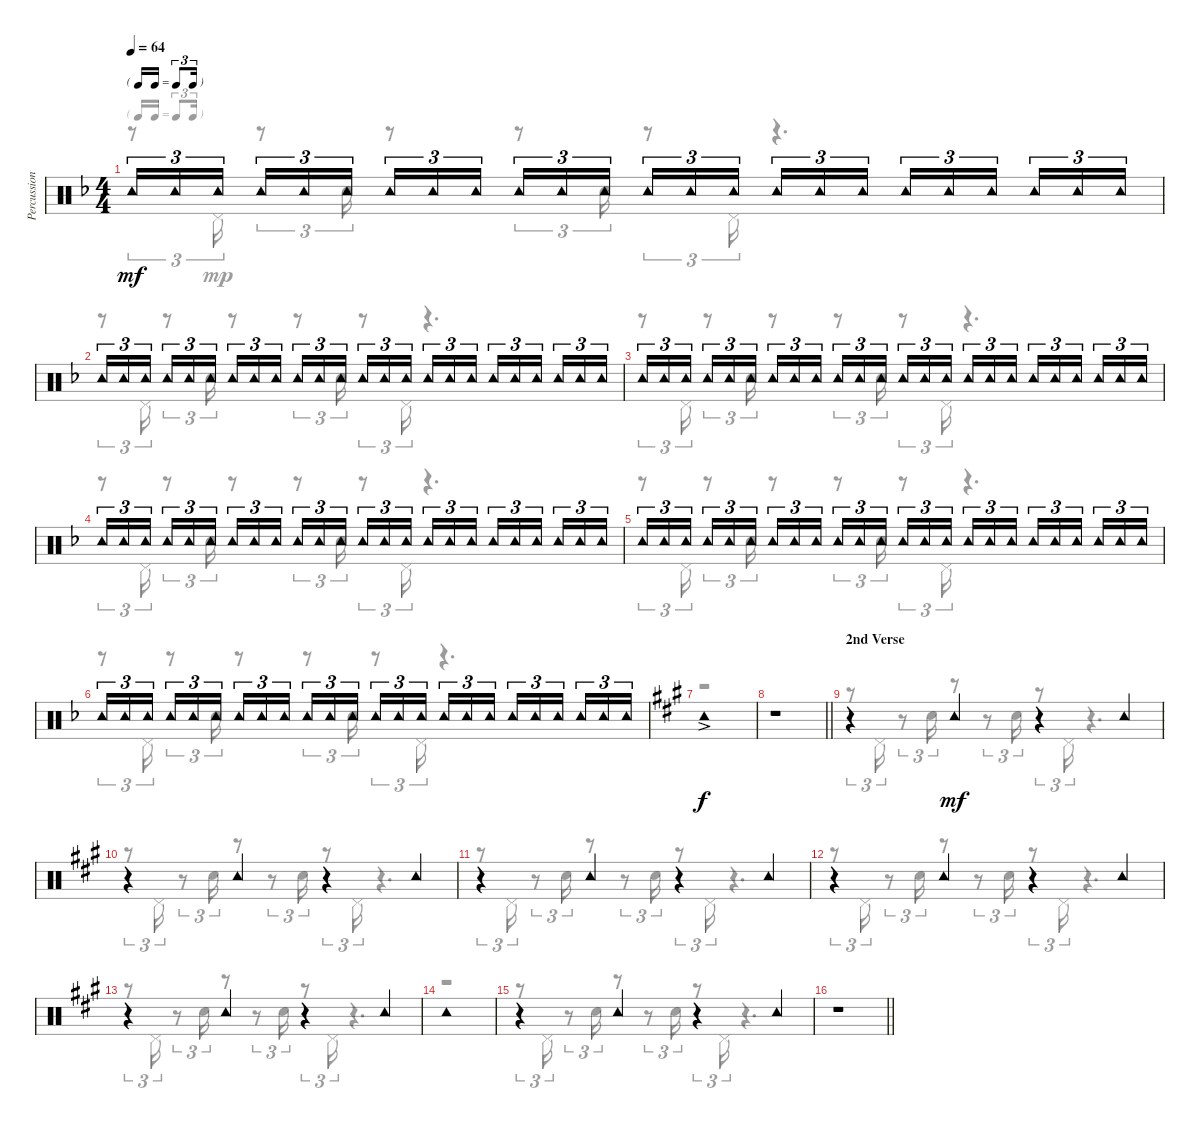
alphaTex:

\track ("Percussion" "Percussion") {instrument percussion}
\staff {score}
\articulation defaults
\voice
\ts (4 4)
\tf triplet16th
\tempo 64
\clef neutral
\ks f "Tambourine (hit)".16{tu (3 2) dy mf} "Tambourine (hit)".16{tu (3 2)} "Tambourine (hit)".16{tu (3 2) beam splitsecondary} "Tambourine (hit)".16{tu (3 2)} "Tambourine (hit)".16{tu (3 2)} "Tambourine (hit)".16{tu (3 2)} "Tambourine (hit)".16{tu (3 2)} "Tambourine (hit)".16{tu (3 2)} "Tambourine (hit)".16{tu (3 2) beam splitsecondary} "Tambourine (hit)".16{tu (3 2)} "Tambourine (hit)".16{tu (3 2)} "Tambourine (hit)".16{tu (3 2)} "Tambourine (hit)".16{tu (3 2)} "Tambourine (hit)".16{tu (3 2)} "Tambourine (hit)".16{tu (3 2) beam splitsecondary} "Tambourine (hit)".16{tu (3 2)} "Tambourine (hit)".16{tu (3 2)} "Tambourine (hit)".16{tu (3 2)} "Tambourine (hit)".16{tu (3 2)} "Tambourine (hit)".16{tu (3 2)} "Tambourine (hit)".16{tu (3 2) beam splitsecondary} "Tambourine (hit)".16{tu (3 2)} "Tambourine (hit)".16{tu (3 2)} "Tambourine (hit)".16{tu (3 2)}
|
"Tambourine (hit)".16{tu (3 2)} "Tambourine (hit)".16{tu (3 2)} "Tambourine (hit)".16{tu (3 2) beam splitsecondary} "Tambourine (hit)".16{tu (3 2)} "Tambourine (hit)".16{tu (3 2)} "Tambourine (hit)".16{tu (3 2)} "Tambourine (hit)".16{tu (3 2)} "Tambourine (hit)".16{tu (3 2)} "Tambourine (hit)".16{tu (3 2) beam splitsecondary} "Tambourine (hit)".16{tu (3 2)} "Tambourine (hit)".16{tu (3 2)} "Tambourine (hit)".16{tu (3 2)} "Tambourine (hit)".16{tu (3 2)} "Tambourine (hit)".16{tu (3 2)} "Tambourine (hit)".16{tu (3 2) beam splitsecondary} "Tambourine (hit)".16{tu (3 2)} "Tambourine (hit)".16{tu (3 2)} "Tambourine (hit)".16{tu (3 2)} "Tambourine (hit)".16{tu (3 2)} "Tambourine (hit)".16{tu (3 2)} "Tambourine (hit)".16{tu (3 2) beam splitsecondary} "Tambourine (hit)".16{tu (3 2)} "Tambourine (hit)".16{tu (3 2)} "Tambourine (hit)".16{tu (3 2)} |
"Tambourine (hit)".16{tu (3 2)} "Tambourine (hit)".16{tu (3 2)} "Tambourine (hit)".16{tu (3 2) beam splitsecondary} "Tambourine (hit)".16{tu (3 2)} "Tambourine (hit)".16{tu (3 2)} "Tambourine (hit)".16{tu (3 2)} "Tambourine (hit)".16{tu (3 2)} "Tambourine (hit)".16{tu (3 2)} "Tambourine (hit)".16{tu (3 2) beam splitsecondary} "Tambourine (hit)".16{tu (3 2)} "Tambourine (hit)".16{tu (3 2)} "Tambourine (hit)".16{tu (3 2)} "Tambourine (hit)".16{tu (3 2)} "Tambourine (hit)".16{tu (3 2)} "Tambourine (hit)".16{tu (3 2) beam splitsecondary} "Tambourine (hit)".16{tu (3 2)} "Tambourine (hit)".16{tu (3 2)} "Tambourine (hit)".16{tu (3 2)} "Tambourine (hit)".16{tu (3 2)} "Tambourine (hit)".16{tu (3 2)} "Tambourine (hit)".16{tu (3 2) beam splitsecondary} "Tambourine (hit)".16{tu (3 2)} "Tambourine (hit)".16{tu (3 2)} "Tambourine (hit)".16{tu (3 2)} |
"Tambourine (hit)".16{tu (3 2)} "Tambourine (hit)".16{tu (3 2)} "Tambourine (hit)".16{tu (3 2) beam splitsecondary} "Tambourine (hit)".16{tu (3 2)} "Tambourine (hit)".16{tu (3 2)} "Tambourine (hit)".16{tu (3 2)} "Tambourine (hit)".16{tu (3 2)} "Tambourine (hit)".16{tu (3 2)} "Tambourine (hit)".16{tu (3 2) beam splitsecondary} "Tambourine (hit)".16{tu (3 2)} "Tambourine (hit)".16{tu (3 2)} "Tambourine (hit)".16{tu (3 2)} "Tambourine (hit)".16{tu (3 2)} "Tambourine (hit)".16{tu (3 2)} "Tambourine (hit)".16{tu (3 2) beam splitsecondary} "Tambourine (hit)".16{tu (3 2)} "Tambourine (hit)".16{tu (3 2)} "Tambourine (hit)".16{tu (3 2)} "Tambourine (hit)".16{tu (3 2)} "Tambourine (hit)".16{tu (3 2)} "Tambourine (hit)".16{tu (3 2) beam splitsecondary} "Tambourine (hit)".16{tu (3 2)} "Tambourine (hit)".16{tu (3 2)} "Tambourine (hit)".16{tu (3 2)} |
"Tambourine (hit)".16{tu (3 2)} "Tambourine (hit)".16{tu (3 2)} "Tambourine (hit)".16{tu (3 2) beam splitsecondary} "Tambourine (hit)".16{tu (3 2)} "Tambourine (hit)".16{tu (3 2)} "Tambourine (hit)".16{tu (3 2)} "Tambourine (hit)".16{tu (3 2)} "Tambourine (hit)".16{tu (3 2)} "Tambourine (hit)".16{tu (3 2) beam splitsecondary} "Tambourine (hit)".16{tu (3 2)} "Tambourine (hit)".16{tu (3 2)} "Tambourine (hit)".16{tu (3 2)} "Tambourine (hit)".16{tu (3 2)} "Tambourine (hit)".16{tu (3 2)} "Tambourine (hit)".16{tu (3 2) beam splitsecondary} "Tambourine (hit)".16{tu (3 2)} "Tambourine (hit)".16{tu (3 2)} "Tambourine (hit)".16{tu (3 2)} "Tambourine (hit)".16{tu (3 2)} "Tambourine (hit)".16{tu (3 2)} "Tambourine (hit)".16{tu (3 2) beam splitsecondary} "Tambourine (hit)".16{tu (3 2)} "Tambourine (hit)".16{tu (3 2)} "Tambourine (hit)".16{tu (3 2)} |
"Tambourine (hit)".16{tu (3 2)} "Tambourine (hit)".16{tu (3 2)} "Tambourine (hit)".16{tu (3 2) beam splitsecondary} "Tambourine (hit)".16{tu (3 2)} "Tambourine (hit)".16{tu (3 2)} "Tambourine (hit)".16{tu (3 2)} "Tambourine (hit)".16{tu (3 2)} "Tambourine (hit)".16{tu (3 2)} "Tambourine (hit)".16{tu (3 2) beam splitsecondary} "Tambourine (hit)".16{tu (3 2)} "Tambourine (hit)".16{tu (3 2)} "Tambourine (hit)".16{tu (3 2)} "Tambourine (hit)".16{tu (3 2)} "Tambourine (hit)".16{tu (3 2)} "Tambourine (hit)".16{tu (3 2) beam splitsecondary} "Tambourine (hit)".16{tu (3 2)} "Tambourine (hit)".16{tu (3 2)} "Tambourine (hit)".16{tu (3 2)} "Tambourine (hit)".16{tu (3 2)} "Tambourine (hit)".16{tu (3 2)} "Tambourine (hit)".16{tu (3 2) beam splitsecondary} "Tambourine (hit)".16{tu (3 2)} "Tambourine (hit)".16{tu (3 2)} "Tambourine (hit)".16{tu (3 2)} |
\ks a "Tambourine (hit)"{ac}.1{dy f}
|
\barLineRight lightlight
r.1 |
\section ("" "2nd Verse")
r.4 "Tambourine (hit)".4{dy mf} r.4 "Tambourine (hit)".4 |
r.4 "Tambourine (hit)".4 r.4 "Tambourine (hit)".4 |
r.4 "Tambourine (hit)".4 r.4 "Tambourine (hit)".4 |
r.4 "Tambourine (hit)".4 r.4 "Tambourine (hit)".4 |
r.4 "Tambourine (hit)".4 r.4 "Tambourine (hit)".4 |
"Tambourine (hit)".1 |
r.4 "Tambourine (hit)".4 r.4 "Tambourine (hit)".4 |
\barLineRight lightlight
r.1
\voice
\clef neutral
\ottava regular
\simile none
\ks f
r.8{tu (3 2) dy mp} "Pedal Hi-Hat (hit)".16{tu (3 2)} r.8{tu (3 2)} "Electric Snare (hit)".16{tu (3 2)} r.8 r.8{tu (3 2)} "Electric Snare (hit)".16{tu (3 2)} r.8{tu (3 2)} "Pedal Hi-Hat (hit)".16{tu (3 2)} r.4{d} |
r.8{tu (3 2)} "Pedal Hi-Hat (hit)".16{tu (3 2)} r.8{tu (3 2)} "Electric Snare (hit)".16{tu (3 2)} r.8 r.8{tu (3 2)} "Electric Snare (hit)".16{tu (3 2)} r.8{tu (3 2)} "Pedal Hi-Hat (hit)".16{tu (3 2)} r.4{d} |
r.8{tu (3 2)} "Pedal Hi-Hat (hit)".16{tu (3 2)} r.8{tu (3 2)} "Electric Snare (hit)".16{tu (3 2)} r.8 r.8{tu (3 2)} "Electric Snare (hit)".16{tu (3 2)} r.8{tu (3 2)} "Pedal Hi-Hat (hit)".16{tu (3 2)} r.4{d} |
r.8{tu (3 2)} "Pedal Hi-Hat (hit)".16{tu (3 2)} r.8{tu (3 2)} "Electric Snare (hit)".16{tu (3 2)} r.8 r.8{tu (3 2)} "Electric Snare (hit)".16{tu (3 2)} r.8{tu (3 2)} "Pedal Hi-Hat (hit)".16{tu (3 2)} r.4{d} |
r.8{tu (3 2)} "Pedal Hi-Hat (hit)".16{tu (3 2)} r.8{tu (3 2)} "Electric Snare (hit)".16{tu (3 2)} r.8 r.8{tu (3 2)} "Electric Snare (hit)".16{tu (3 2)} r.8{tu (3 2)} "Pedal Hi-Hat (hit)".16{tu (3 2)} r.4{d} |
r.8{tu (3 2)} "Pedal Hi-Hat (hit)".16{tu (3 2)} r.8{tu (3 2)} "Electric Snare (hit)".16{tu (3 2)} r.8 r.8{tu (3 2)} "Electric Snare (hit)".16{tu (3 2)} r.8{tu (3 2)} "Pedal Hi-Hat (hit)".16{tu (3 2)} r.4{d} |
\ks a
r.1 |
\barLineRight lightlight
r.1 |
r.8{tu (3 2)} "Pedal Hi-Hat (hit)".16{tu (3 2)} r.8{tu (3 2)} "Electric Snare (hit)".16{tu (3 2)} r.8 r.8{tu (3 2)} "Electric Snare (hit)".16{tu (3 2)} r.8{tu (3 2)} "Pedal Hi-Hat (hit)".16{tu (3 2)} r.4{d} |
r.8{tu (3 2)} "Pedal Hi-Hat (hit)".16{tu (3 2)} r.8{tu (3 2)} "Electric Snare (hit)".16{tu (3 2)} r.8 r.8{tu (3 2)} "Electric Snare (hit)".16{tu (3 2)} r.8{tu (3 2)} "Pedal Hi-Hat (hit)".16{tu (3 2)} r.4{d} |
r.8{tu (3 2)} "Pedal Hi-Hat (hit)".16{tu (3 2)} r.8{tu (3 2)} "Electric Snare (hit)".16{tu (3 2)} r.8 r.8{tu (3 2)} "Electric Snare (hit)".16{tu (3 2)} r.8{tu (3 2)} "Pedal Hi-Hat (hit)".16{tu (3 2)} r.4{d} |
r.8{tu (3 2)} "Pedal Hi-Hat (hit)".16{tu (3 2)} r.8{tu (3 2)} "Electric Snare (hit)".16{tu (3 2)} r.8 r.8{tu (3 2)} "Electric Snare (hit)".16{tu (3 2)} r.8{tu (3 2)} "Pedal Hi-Hat (hit)".16{tu (3 2)} r.4{d} |
r.8{tu (3 2)} "Pedal Hi-Hat (hit)".16{tu (3 2)} r.8{tu (3 2)} "Electric Snare (hit)".16{tu (3 2)} r.8 r.8{tu (3 2)} "Electric Snare (hit)".16{tu (3 2)} r.8{tu (3 2)} "Pedal Hi-Hat (hit)".16{tu (3 2)} r.4{d} |
r.1 |
r.8{tu (3 2)} "Pedal Hi-Hat (hit)".16{tu (3 2)} r.8{tu (3 2)} "Electric Snare (hit)".16{tu (3 2)} r.8 r.8{tu (3 2)} "Electric Snare (hit)".16{tu (3 2)} r.8{tu (3 2)} "Pedal Hi-Hat (hit)".16{tu (3 2)} r.4{d} |
\barLineRight lightlight
r.1
